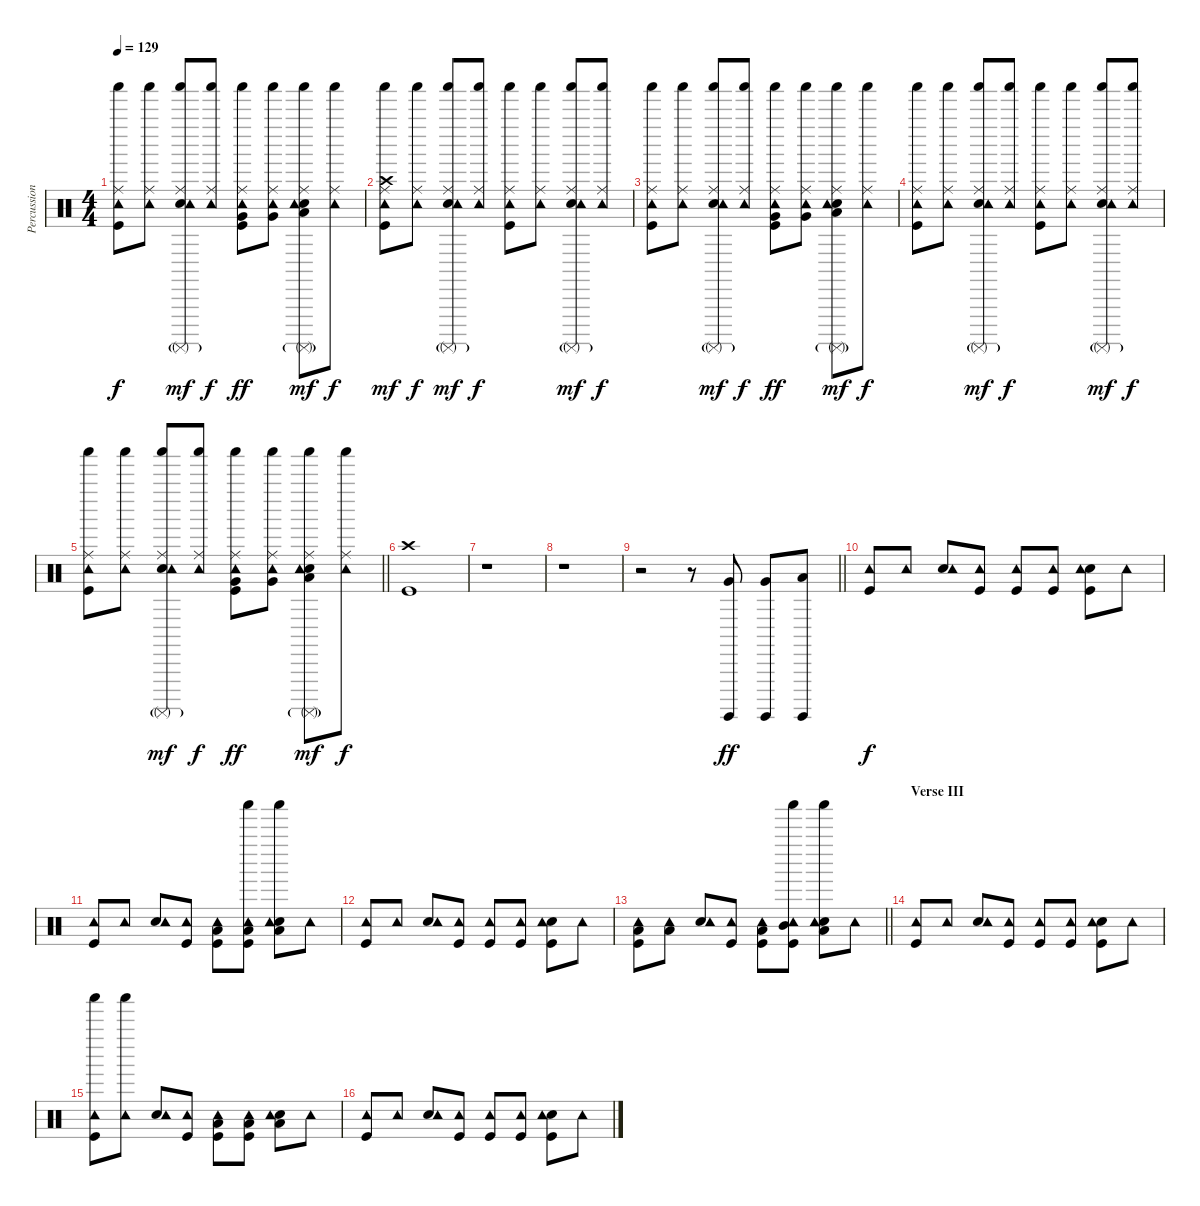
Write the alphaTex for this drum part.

\track ("Percussion" "Percussion") {instrument percussion}
\staff {score}
\articulation defaults
\ts (4 4)
\tempo 129
\clef neutral
\ks c
("Shaker (hit)" "Ride (middle)" "Tambourine (hit)" "Kick (hit)").8{dy f} ("Shaker (hit)" "Ride (middle)" "Tambourine (hit)").8 ("Shaker (hit)" "Ride (middle)" "Snare (hit) 2" "Tambourine (hit)" "Surdo (mute)"{g}).8{dy mf} ("Shaker (hit)" "Ride (middle)" "Tambourine (hit)").8{dy f} ("Very Low Tom (hit)" "Shaker (hit)" "Ride (middle)" "Tambourine (hit)" "Kick (hit)").8{dy ff} ("Very Low Tom (hit)" "Shaker (hit)" "Ride (middle)" "Tambourine (hit)").8 ("Low Floor Tom (hit)" "Shaker (hit)" "Ride (middle)" "Snare (hit) 2" "Tambourine (hit)" "Surdo (mute)"{g}).8{dy mf} ("Shaker (hit)" "Ride (middle)" "Tambourine (hit)").8{dy f} |
("Crash high (hit)" "Shaker (hit)" "Ride (middle)" "Tambourine (hit)" "Kick (hit)").8{dy mf} ("Shaker (hit)" "Ride (middle)" "Tambourine (hit)").8{dy f} ("Shaker (hit)" "Ride (middle)" "Snare (hit) 2" "Tambourine (hit)" "Surdo (mute)"{g}).8{dy mf} ("Shaker (hit)" "Ride (middle)" "Tambourine (hit)").8{dy f} ("Shaker (hit)" "Ride (middle)" "Tambourine (hit)" "Kick (hit)").8 ("Shaker (hit)" "Ride (middle)" "Tambourine (hit)").8 ("Shaker (hit)" "Ride (middle)" "Snare (hit) 2" "Tambourine (hit)" "Surdo (mute)"{g}).8{dy mf} ("Shaker (hit)" "Ride (middle)" "Tambourine (hit)").8{dy f} |
("Shaker (hit)" "Ride (middle)" "Tambourine (hit)" "Kick (hit)").8 ("Shaker (hit)" "Ride (middle)" "Tambourine (hit)").8 ("Shaker (hit)" "Ride (middle)" "Snare (hit) 2" "Tambourine (hit)" "Surdo (mute)"{g}).8{dy mf} ("Shaker (hit)" "Ride (middle)" "Tambourine (hit)").8{dy f} ("Very Low Tom (hit)" "Shaker (hit)" "Ride (middle)" "Tambourine (hit)" "Kick (hit)").8{dy ff} ("Very Low Tom (hit)" "Shaker (hit)" "Ride (middle)" "Tambourine (hit)").8 ("Low Floor Tom (hit)" "Shaker (hit)" "Ride (middle)" "Snare (hit) 2" "Tambourine (hit)" "Surdo (mute)"{g}).8{dy mf} ("Shaker (hit)" "Ride (middle)" "Tambourine (hit)").8{dy f} |
("Shaker (hit)" "Ride (middle)" "Tambourine (hit)" "Kick (hit)").8 ("Shaker (hit)" "Ride (middle)" "Tambourine (hit)").8 ("Shaker (hit)" "Ride (middle)" "Snare (hit) 2" "Tambourine (hit)" "Surdo (mute)"{g}).8{dy mf} ("Shaker (hit)" "Ride (middle)" "Tambourine (hit)").8{dy f} ("Shaker (hit)" "Ride (middle)" "Tambourine (hit)" "Kick (hit)").8 ("Shaker (hit)" "Ride (middle)" "Tambourine (hit)").8 ("Shaker (hit)" "Ride (middle)" "Snare (hit) 2" "Tambourine (hit)" "Surdo (mute)"{g}).8{dy mf} ("Shaker (hit)" "Ride (middle)" "Tambourine (hit)").8{dy f} |
\barLineRight lightlight
("Shaker (hit)" "Ride (middle)" "Tambourine (hit)" "Kick (hit)").8 ("Shaker (hit)" "Ride (middle)" "Tambourine (hit)").8 ("Shaker (hit)" "Ride (middle)" "Snare (hit) 2" "Tambourine (hit)" "Surdo (mute)"{g}).8{dy mf} ("Shaker (hit)" "Ride (middle)" "Tambourine (hit)").8{dy f} ("Very Low Tom (hit)" "Shaker (hit)" "Ride (middle)" "Tambourine (hit)" "Kick (hit)").8{dy ff} ("Very Low Tom (hit)" "Shaker (hit)" "Ride (middle)" "Tambourine (hit)").8 ("Low Floor Tom (hit)" "Shaker (hit)" "Ride (middle)" "Snare (hit) 2" "Tambourine (hit)" "Surdo (mute)"{g}).8{dy mf} ("Shaker (hit)" "Ride (middle)" "Tambourine (hit)").8{dy f} |
("Crash high (hit)" "Kick (hit)").1 |
r.1 |
r.1 |
\barLineRight lightlight
r.2 r.8 ("Very Low Tom (hit)" "Surdo (hit)").8{dy ff} ("Very Low Tom (hit)" "Surdo (hit)").8 ("Low Floor Tom (hit)" "Surdo (hit)").8 |
("Tambourine (hit)" "Kick (hit)").8{dy f} "Tambourine (hit)".8 ("Snare (hit) 2" "Tambourine (hit)").8 ("Tambourine (hit)" "Kick (hit)").8 ("Tambourine (hit)" "Kick (hit)").8 ("Tambourine (hit)" "Kick (hit)").8 ("Snare (hit) 2" "Tambourine (hit)" "Kick (hit)").8 "Tambourine (hit)".8 |
("Tambourine (hit)" "Kick (hit)").8 "Tambourine (hit)".8 ("Snare (hit) 2" "Tambourine (hit)").8 ("Tambourine (hit)" "Kick (hit)").8 ("Low Tom (hit)" "Tambourine (hit)" "Kick (hit)").8 ("Low Tom (hit)" "Shaker (hit)" "Tambourine (hit)" "Kick (hit)").8 ("Low Floor Tom (hit)" "Shaker (hit)" "Snare (hit) 2" "Tambourine (hit)").8 "Tambourine (hit)".8 |
("Tambourine (hit)" "Kick (hit)").8 "Tambourine (hit)".8 ("Snare (hit) 2" "Tambourine (hit)").8 ("Tambourine (hit)" "Kick (hit)").8 ("Tambourine (hit)" "Kick (hit)").8 ("Tambourine (hit)" "Kick (hit)").8 ("Snare (hit) 2" "Tambourine (hit)" "Kick (hit)").8 "Tambourine (hit)".8 |
\barLineRight lightlight
("Low Tom (hit)" "Tambourine (hit)" "Kick (hit)").8 ("Low Tom (hit)" "Tambourine (hit)").8 ("Snare (hit) 2" "Tambourine (hit)").8 ("Tambourine (hit)" "Kick (hit)").8 ("Low Tom (hit)" "Tambourine (hit)" "Kick (hit)").8 ("Mid Tom (hit)" "Shaker (hit)" "Tambourine (hit)" "Kick (hit)").8 ("Low Tom (hit)" "Shaker (hit)" "Snare (hit) 2" "Tambourine (hit)").8 "Tambourine (hit)".8 |
\section ("" "Verse III")
("Tambourine (hit)" "Kick (hit)").8 "Tambourine (hit)".8 ("Snare (hit) 2" "Tambourine (hit)").8 ("Tambourine (hit)" "Kick (hit)").8 ("Tambourine (hit)" "Kick (hit)").8 ("Tambourine (hit)" "Kick (hit)").8 ("Snare (hit) 2" "Tambourine (hit)" "Kick (hit)").8 "Tambourine (hit)".8 |
("Shaker (hit)" "Tambourine (hit)" "Kick (hit)").8 ("Shaker (hit)" "Tambourine (hit)").8 ("Snare (hit) 2" "Tambourine (hit)").8 ("Tambourine (hit)" "Kick (hit)").8 ("Low Tom (hit)" "Tambourine (hit)" "Kick (hit)").8 ("Low Tom (hit)" "Tambourine (hit)" "Kick (hit)").8 ("Low Floor Tom (hit)" "Snare (hit) 2" "Tambourine (hit)").8 "Tambourine (hit)".8 |
("Tambourine (hit)" "Kick (hit)").8 "Tambourine (hit)".8 ("Snare (hit) 2" "Tambourine (hit)").8 ("Tambourine (hit)" "Kick (hit)").8 ("Tambourine (hit)" "Kick (hit)").8 ("Tambourine (hit)" "Kick (hit)").8 ("Snare (hit) 2" "Tambourine (hit)" "Kick (hit)").8 "Tambourine (hit)".8
